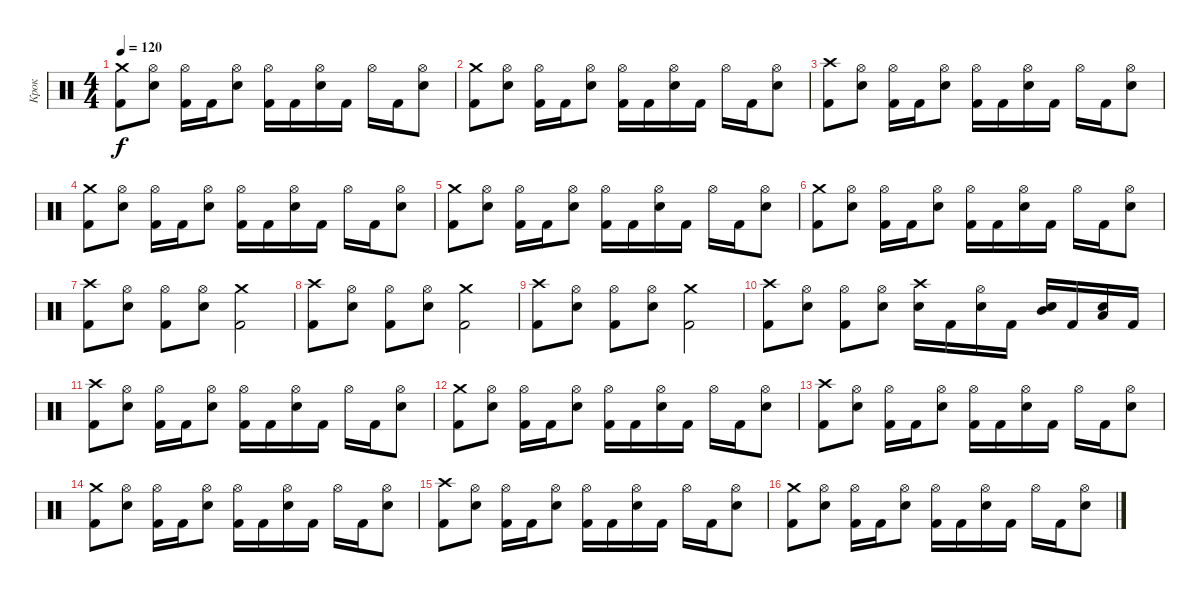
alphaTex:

\track ("Крок" "Крок") {instrument percussion}
\staff {score}
\articulation defaults
\ts (4 4)
\tempo 120
\clef neutral
\ks c
("Crash medium (hit)" "Kick (hit) 2").8{dy f} ("Hi-Hat (open)" "Electric Snare (hit)").8 ("Hi-Hat (open)" "Kick (hit) 2").16 "Kick (hit) 2".16 ("Hi-Hat (open)" "Electric Snare (hit)").8 ("Hi-Hat (open)" "Kick (hit) 2").16 "Kick (hit) 2".16 ("Hi-Hat (open)" "Electric Snare (hit)").16 "Kick (hit) 2".16 "Hi-Hat (open)".16 "Kick (hit) 2".16 ("Hi-Hat (open)" "Electric Snare (hit)").8 |
("Crash medium (hit)" "Kick (hit) 2").8 ("Hi-Hat (open)" "Electric Snare (hit)").8 ("Hi-Hat (open)" "Kick (hit) 2").16 "Kick (hit) 2".16 ("Hi-Hat (open)" "Electric Snare (hit)").8 ("Hi-Hat (open)" "Kick (hit) 2").16 "Kick (hit) 2".16 ("Hi-Hat (open)" "Electric Snare (hit)").16 "Kick (hit) 2".16 "Hi-Hat (open)".16 "Kick (hit) 2".16 ("Hi-Hat (open)" "Electric Snare (hit)").8 |
("Crash high (hit)" "Kick (hit) 2").8 ("Hi-Hat (open)" "Electric Snare (hit)").8 ("Hi-Hat (open)" "Kick (hit) 2").16 "Kick (hit) 2".16 ("Hi-Hat (open)" "Electric Snare (hit)").8 ("Hi-Hat (open)" "Kick (hit) 2").16 "Kick (hit) 2".16 ("Hi-Hat (open)" "Electric Snare (hit)").16 "Kick (hit) 2".16 "Hi-Hat (open)".16 "Kick (hit) 2".16 ("Hi-Hat (open)" "Electric Snare (hit)").8 |
("Crash medium (hit)" "Kick (hit) 2").8 ("Hi-Hat (open)" "Electric Snare (hit)").8 ("Hi-Hat (open)" "Kick (hit) 2").16 "Kick (hit) 2".16 ("Hi-Hat (open)" "Electric Snare (hit)").8 ("Hi-Hat (open)" "Kick (hit) 2").16 "Kick (hit) 2".16 ("Hi-Hat (open)" "Electric Snare (hit)").16 "Kick (hit) 2".16 "Hi-Hat (open)".16 "Kick (hit) 2".16 ("Hi-Hat (open)" "Electric Snare (hit)").8 |
("Crash medium (hit)" "Kick (hit) 2").8 ("Hi-Hat (open)" "Electric Snare (hit)").8 ("Hi-Hat (open)" "Kick (hit) 2").16 "Kick (hit) 2".16 ("Hi-Hat (open)" "Electric Snare (hit)").8 ("Hi-Hat (open)" "Kick (hit) 2").16 "Kick (hit) 2".16 ("Hi-Hat (open)" "Electric Snare (hit)").16 "Kick (hit) 2".16 "Hi-Hat (open)".16 "Kick (hit) 2".16 ("Hi-Hat (open)" "Electric Snare (hit)").8 |
("Crash medium (hit)" "Kick (hit) 2").8 ("Hi-Hat (open)" "Electric Snare (hit)").8 ("Hi-Hat (open)" "Kick (hit) 2").16 "Kick (hit) 2".16 ("Hi-Hat (open)" "Electric Snare (hit)").8 ("Hi-Hat (open)" "Kick (hit) 2").16 "Kick (hit) 2".16 ("Hi-Hat (open)" "Electric Snare (hit)").16 "Kick (hit) 2".16 "Hi-Hat (open)".16 "Kick (hit) 2".16 ("Hi-Hat (open)" "Electric Snare (hit)").8 |
("Crash high (hit)" "Kick (hit) 2").8 ("Hi-Hat (open)" "Electric Snare (hit)").8 ("Hi-Hat (open)" "Kick (hit) 2").8 ("Hi-Hat (open)" "Electric Snare (hit)").8 ("Crash medium (hit)" "Kick (hit) 2").2 |
("Crash high (hit)" "Kick (hit) 2").8 ("Hi-Hat (open)" "Electric Snare (hit)").8 ("Hi-Hat (open)" "Kick (hit) 2").8 ("Hi-Hat (open)" "Electric Snare (hit)").8 ("Crash medium (hit)" "Kick (hit) 2").2 |
("Crash high (hit)" "Kick (hit) 2").8 ("Hi-Hat (open)" "Electric Snare (hit)").8 ("Hi-Hat (open)" "Kick (hit) 2").8 ("Hi-Hat (open)" "Electric Snare (hit)").8 ("Crash medium (hit)" "Kick (hit) 2").2 |
("Crash high (hit)" "Kick (hit) 2").8 ("Hi-Hat (open)" "Electric Snare (hit)").8 ("Hi-Hat (open)" "Kick (hit) 2").8 ("Hi-Hat (open)" "Electric Snare (hit)").8 ("Crash high (hit)" "Electric Snare (hit)").16 "Kick (hit) 2".16 ("Hi-Hat (open)" "Electric Snare (hit)").16 "Kick (hit) 2".16 ("Mid Tom (hit)" "Electric Snare (hit)").16 "Kick (hit) 2".16 ("Low Tom (hit)" "Electric Snare (hit)").16 "Kick (hit) 2".16 |
("Crash high (hit)" "Kick (hit) 2").8 ("Hi-Hat (open)" "Electric Snare (hit)").8 ("Hi-Hat (open)" "Kick (hit) 2").16 "Kick (hit) 2".16 ("Hi-Hat (open)" "Electric Snare (hit)").8 ("Hi-Hat (open)" "Kick (hit) 2").16 "Kick (hit) 2".16 ("Hi-Hat (open)" "Electric Snare (hit)").16 "Kick (hit) 2".16 "Hi-Hat (open)".16 "Kick (hit) 2".16 ("Hi-Hat (open)" "Electric Snare (hit)").8 |
("Crash medium (hit)" "Kick (hit) 2").8 ("Hi-Hat (open)" "Electric Snare (hit)").8 ("Hi-Hat (open)" "Kick (hit) 2").16 "Kick (hit) 2".16 ("Hi-Hat (open)" "Electric Snare (hit)").8 ("Hi-Hat (open)" "Kick (hit) 2").16 "Kick (hit) 2".16 ("Hi-Hat (open)" "Electric Snare (hit)").16 "Kick (hit) 2".16 "Hi-Hat (open)".16 "Kick (hit) 2".16 ("Hi-Hat (open)" "Electric Snare (hit)").8 |
("Crash high (hit)" "Kick (hit) 2").8 ("Hi-Hat (open)" "Electric Snare (hit)").8 ("Hi-Hat (open)" "Kick (hit) 2").16 "Kick (hit) 2".16 ("Hi-Hat (open)" "Electric Snare (hit)").8 ("Hi-Hat (open)" "Kick (hit) 2").16 "Kick (hit) 2".16 ("Hi-Hat (open)" "Electric Snare (hit)").16 "Kick (hit) 2".16 "Hi-Hat (open)".16 "Kick (hit) 2".16 ("Hi-Hat (open)" "Electric Snare (hit)").8 |
("Crash medium (hit)" "Kick (hit) 2").8 ("Hi-Hat (open)" "Electric Snare (hit)").8 ("Hi-Hat (open)" "Kick (hit) 2").16 "Kick (hit) 2".16 ("Hi-Hat (open)" "Electric Snare (hit)").8 ("Hi-Hat (open)" "Kick (hit) 2").16 "Kick (hit) 2".16 ("Hi-Hat (open)" "Electric Snare (hit)").16 "Kick (hit) 2".16 "Hi-Hat (open)".16 "Kick (hit) 2".16 ("Hi-Hat (open)" "Electric Snare (hit)").8 |
("Crash high (hit)" "Kick (hit) 2").8 ("Hi-Hat (open)" "Electric Snare (hit)").8 ("Hi-Hat (open)" "Kick (hit) 2").16 "Kick (hit) 2".16 ("Hi-Hat (open)" "Electric Snare (hit)").8 ("Hi-Hat (open)" "Kick (hit) 2").16 "Kick (hit) 2".16 ("Hi-Hat (open)" "Electric Snare (hit)").16 "Kick (hit) 2".16 "Hi-Hat (open)".16 "Kick (hit) 2".16 ("Hi-Hat (open)" "Electric Snare (hit)").8 |
("Crash medium (hit)" "Kick (hit) 2").8 ("Hi-Hat (open)" "Electric Snare (hit)").8 ("Hi-Hat (open)" "Kick (hit) 2").16 "Kick (hit) 2".16 ("Hi-Hat (open)" "Electric Snare (hit)").8 ("Hi-Hat (open)" "Kick (hit) 2").16 "Kick (hit) 2".16 ("Hi-Hat (open)" "Electric Snare (hit)").16 "Kick (hit) 2".16 "Hi-Hat (open)".16 "Kick (hit) 2".16 ("Hi-Hat (open)" "Electric Snare (hit)").8
